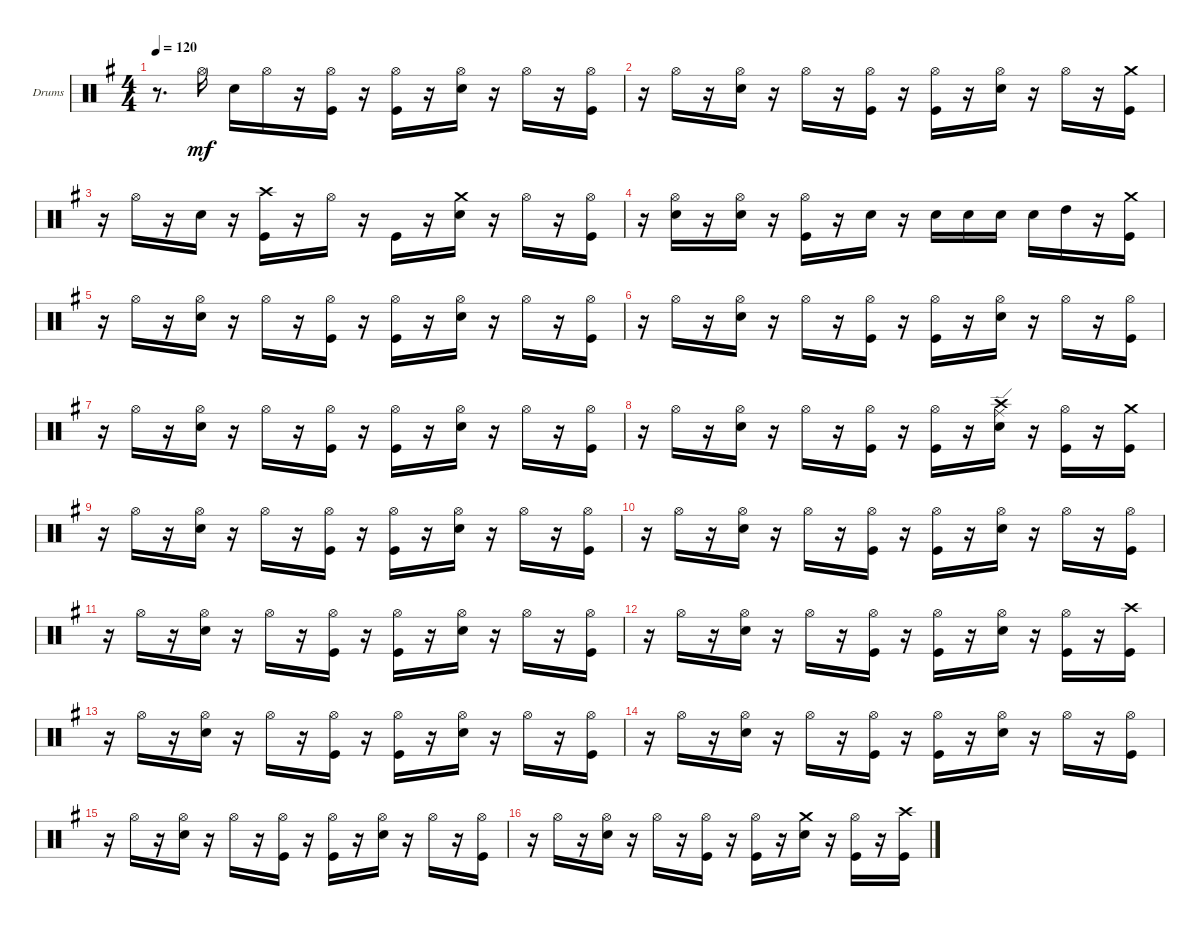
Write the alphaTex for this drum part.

\bracketExtendMode groupsimilarinstruments
\firstSystemTrackNameOrientation horizontal
\otherSystemsTrackNameOrientation horizontal
\track ("Drumkit" "Drums") {multiBarRest instrument percussion}
\staff {score}
\articulation defaults
\ts (4 4)
\tempo 120
\clef neutral
\scale
0.333333
\ks g
r.8{d dy mf} "Hi-Hat (open)".16 "Snare (hit) 2".16 "Hi-Hat (open)".16 r.16 ("Hi-Hat (open)" "Kick (hit)").16 r.16 ("Kick (hit)" "Hi-Hat (open)").16 r.16 ("Hi-Hat (open)" "Snare (hit) 2").16 r.16 "Hi-Hat (open)".16 r.16 ("Kick (hit)" "Hi-Hat (open)").16 |
\scale
0.333333 r.16 "Hi-Hat (open)".16 r.16 ("Snare (hit) 2" "Hi-Hat (open)").16 r.16 "Hi-Hat (open)".16 r.16 ("Kick (hit)" "Hi-Hat (open)").16 r.16 ("Kick (hit)" "Hi-Hat (open)").16 r.16 ("Snare (hit) 2" "Hi-Hat (open)").16 r.16 "Hi-Hat (open)".16 r.16 ("Kick (hit)" "Crash medium (hit)").16 |
\scale
0.333333 r.16 "Hi-Hat (open)".16 r.16 "Snare (hit) 2".16 r.16 ("Crash high (hit)" "Kick (hit)").16 r.16 "Hi-Hat (open)".16 r.16 "Kick (hit)".16 r.16 ("Snare (hit) 2" "Crash medium (hit)").16 r.16 "Hi-Hat (open)".16 r.16 ("Kick (hit)" "Hi-Hat (open)").16 |
\scale
0.333333 r.16 ("Hi-Hat (open)" "Snare (hit) 2").16 r.16 ("Hi-Hat (open)" "Snare (hit) 2").16 r.16 ("Hi-Hat (open)" "Kick (hit)").16 r.16 "Snare (hit) 2".16 r.16 "Snare (hit) 2".16 "Snare (hit) 2".16 "Snare (hit) 2".16 "Snare (hit) 2".16 "High Tom (hit)".16 r.16 ("Kick (hit)" "Crash medium (hit)").16 |
\scale
0.333333 r.16 "Hi-Hat (open)".16 r.16 ("Hi-Hat (open)" "Snare (hit) 2").16 r.16 "Hi-Hat (open)".16 r.16 ("Hi-Hat (open)" "Kick (hit)").16 r.16 ("Kick (hit)" "Hi-Hat (open)").16 r.16 ("Snare (hit) 2" "Hi-Hat (open)").16 r.16 "Hi-Hat (open)".16 r.16 ("Hi-Hat (open)" "Kick (hit)").16 |
\scale
0.333333 r.16 "Hi-Hat (open)".16 r.16 ("Hi-Hat (open)" "Snare (hit) 2").16 r.16 "Hi-Hat (open)".16 r.16 ("Kick (hit)" "Hi-Hat (open)").16 r.16 ("Kick (hit)" "Hi-Hat (open)").16 r.16 ("Hi-Hat (open)" "Snare (hit) 2").16 r.16 "Hi-Hat (open)".16 r.16 ("Hi-Hat (open)" "Kick (hit)").16 |
\scale
0.333333 r.16 "Hi-Hat (open)".16 r.16 ("Hi-Hat (open)" "Snare (hit) 2").16 r.16 "Hi-Hat (open)".16 r.16 ("Kick (hit)" "Hi-Hat (open)").16 r.16 ("Kick (hit)" "Hi-Hat (open)").16 r.16 ("Hi-Hat (open)" "Snare (hit) 2").16 r.16 "Hi-Hat (open)".16 r.16 ("Hi-Hat (open)" "Kick (hit)").16 |
\scale
0.333333 r.16 "Hi-Hat (open)".16 r.16 ("Hi-Hat (open)" "Snare (hit) 2").16 r.16 "Hi-Hat (open)".16 r.16 ("Hi-Hat (open)" "Kick (hit)").16 r.16 ("Kick (hit)" "Hi-Hat (open)").16 r.16 ("Crash high (hit)" "Snare (hit) 2" "Ride (edge)").16 r.16 ("Hi-Hat (open)" "Kick (hit)").16 r.16 ("Crash medium (hit)" "Kick (hit)").16 |
\scale
0.333333 r.16 "Hi-Hat (open)".16 r.16 ("Hi-Hat (open)" "Snare (hit) 2").16 r.16 "Hi-Hat (open)".16 r.16 ("Hi-Hat (open)" "Kick (hit)").16 r.16 ("Kick (hit)" "Hi-Hat (open)").16 r.16 ("Hi-Hat (open)" "Snare (hit) 2").16 r.16 "Hi-Hat (open)".16 r.16 ("Hi-Hat (open)" "Kick (hit)").16 |
\scale
0.333333 r.16 "Hi-Hat (open)".16 r.16 ("Hi-Hat (open)" "Snare (hit) 2").16 r.16 "Hi-Hat (open)".16 r.16 ("Hi-Hat (open)" "Kick (hit)").16 r.16 ("Kick (hit)" "Hi-Hat (open)").16 r.16 ("Hi-Hat (open)" "Snare (hit) 2").16 r.16 "Hi-Hat (open)".16 r.16 ("Hi-Hat (open)" "Kick (hit)").16 |
\scale
0.333333 r.16 "Hi-Hat (open)".16 r.16 ("Hi-Hat (open)" "Snare (hit) 2").16 r.16 "Hi-Hat (open)".16 r.16 ("Kick (hit)" "Hi-Hat (open)").16 r.16 ("Kick (hit)" "Hi-Hat (open)").16 r.16 ("Hi-Hat (open)" "Snare (hit) 2").16 r.16 "Hi-Hat (open)".16 r.16 ("Hi-Hat (open)" "Kick (hit)").16 |
\scale
0.333333 r.16 "Hi-Hat (open)".16 r.16 ("Hi-Hat (open)" "Snare (hit) 2").16 r.16 "Hi-Hat (open)".16 r.16 ("Hi-Hat (open)" "Kick (hit)").16 r.16 ("Kick (hit)" "Hi-Hat (open)").16 r.16 ("Snare (hit) 2" "Hi-Hat (open)").16 r.16 ("Kick (hit)" "Hi-Hat (open)").16 r.16 ("Crash high (hit)" "Kick (hit)").16 |
\scale
0.333333 r.16 "Hi-Hat (open)".16 r.16 ("Hi-Hat (open)" "Snare (hit) 2").16 r.16 "Hi-Hat (open)".16 r.16 ("Hi-Hat (open)" "Kick (hit)").16 r.16 ("Kick (hit)" "Hi-Hat (open)").16 r.16 ("Hi-Hat (open)" "Snare (hit) 2").16 r.16 "Hi-Hat (open)".16 r.16 ("Kick (hit)" "Hi-Hat (open)").16 |
\scale
0.333333 r.16 "Hi-Hat (open)".16 r.16 ("Hi-Hat (open)" "Snare (hit) 2").16 r.16 "Hi-Hat (open)".16 r.16 ("Hi-Hat (open)" "Kick (hit)").16 r.16 ("Hi-Hat (open)" "Kick (hit)").16 r.16 ("Hi-Hat (open)" "Snare (hit) 2").16 r.16 "Hi-Hat (open)".16 r.16 ("Hi-Hat (open)" "Kick (hit)").16 |
\scale
0.333333 r.16 "Hi-Hat (open)".16 r.16 ("Snare (hit) 2" "Hi-Hat (open)").16 r.16 "Hi-Hat (open)".16 r.16 ("Hi-Hat (open)" "Kick (hit)").16 r.16 ("Hi-Hat (open)" "Kick (hit)").16 r.16 ("Hi-Hat (open)" "Snare (hit) 2").16 r.16 "Hi-Hat (open)".16 r.16 ("Hi-Hat (open)" "Kick (hit)").16 |
\scale
0.333333 r.16 "Hi-Hat (open)".16 r.16 ("Hi-Hat (open)" "Snare (hit) 2").16 r.16 "Hi-Hat (open)".16 r.16 ("Hi-Hat (open)" "Kick (hit)").16 r.16 ("Kick (hit)" "Hi-Hat (open)").16 r.16 ("Crash medium (hit)" "Snare (hit) 2").16 r.16 ("Hi-Hat (open)" "Kick (hit)").16 r.16 ("Crash high (hit)" "Kick (hit)").16
